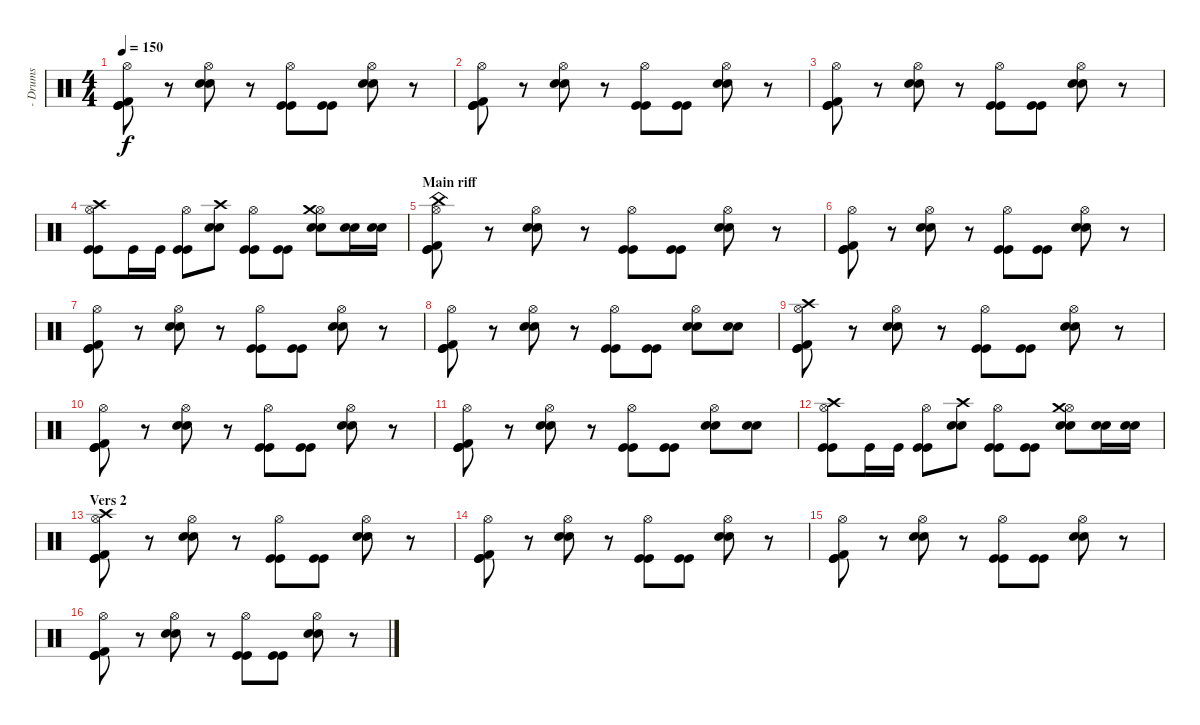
\track (" - Drums" " - Drums") {instrument percussion}
\staff {score}
\articulation defaults
\ts (4 4)
\tempo 150
\clef neutral
\ks c
("Hi-Hat (open)" "Kick (hit) 2" "Kick (hit)" "Kick (hit)").8{dy f} r.8 ("Hi-Hat (open)" "Snare (hit) 2" "Snare (hit) 2").8 r.8 ("Hi-Hat (open)" "Kick (hit)" "Kick (hit)").8 ("Kick (hit)" "Kick (hit)").8 ("Hi-Hat (open)" "Snare (hit) 2" "Snare (hit) 2").8 r.8 |
("Hi-Hat (open)" "Kick (hit) 2" "Kick (hit)" "Kick (hit)").8 r.8 ("Hi-Hat (open)" "Snare (hit) 2" "Snare (hit) 2").8 r.8 ("Hi-Hat (open)" "Kick (hit)" "Kick (hit)").8 ("Kick (hit)" "Kick (hit)").8 ("Hi-Hat (open)" "Snare (hit) 2" "Snare (hit) 2").8 r.8 |
("Hi-Hat (open)" "Kick (hit) 2" "Kick (hit)" "Kick (hit)").8 r.8 ("Hi-Hat (open)" "Snare (hit) 2" "Snare (hit) 2").8 r.8 ("Hi-Hat (open)" "Kick (hit)" "Kick (hit)").8 ("Kick (hit)" "Kick (hit)").8 ("Hi-Hat (open)" "Snare (hit) 2" "Snare (hit) 2").8 r.8 |
("Hi-Hat (open)" "Crash high (hit)" "Kick (hit)" "Kick (hit)").8 "Kick (hit)".16 "Kick (hit)".16 ("Hi-Hat (open)" "Kick (hit)" "Kick (hit)").8 ("Crash high (hit)" "Snare (hit) 2" "Snare (hit) 2").8 ("Hi-Hat (open)" "Kick (hit)" "Kick (hit)").8 ("Kick (hit)" "Kick (hit)").8 ("Hi-Hat (open)" "Crash medium (hit)" "Snare (hit) 2" "Snare (hit) 2").8 ("Snare (hit) 2" "Snare (hit) 2").16 ("Snare (hit) 2" "Snare (hit) 2").16 |
\section ("" "Main riff")
("Hi-Hat (open)" "China (hit)" "Kick (hit) 2" "Kick (hit)" "Kick (hit)").8 r.8 ("Hi-Hat (open)" "Snare (hit) 2" "Snare (hit) 2").8 r.8 ("Hi-Hat (open)" "Kick (hit)" "Kick (hit)").8 ("Kick (hit)" "Kick (hit)").8 ("Hi-Hat (open)" "Snare (hit) 2" "Snare (hit) 2").8 r.8 |
("Hi-Hat (open)" "Kick (hit) 2" "Kick (hit)" "Kick (hit)").8 r.8 ("Hi-Hat (open)" "Snare (hit) 2" "Snare (hit) 2").8 r.8 ("Hi-Hat (open)" "Kick (hit)" "Kick (hit)").8 ("Kick (hit)" "Kick (hit)").8 ("Hi-Hat (open)" "Snare (hit) 2" "Snare (hit) 2").8 r.8 |
("Hi-Hat (open)" "Kick (hit) 2" "Kick (hit)" "Kick (hit)").8 r.8 ("Hi-Hat (open)" "Snare (hit) 2" "Snare (hit) 2").8 r.8 ("Hi-Hat (open)" "Kick (hit)" "Kick (hit)").8 ("Kick (hit)" "Kick (hit)").8 ("Hi-Hat (open)" "Snare (hit) 2" "Snare (hit) 2").8 r.8 |
("Hi-Hat (open)" "Kick (hit) 2" "Kick (hit)" "Kick (hit)").8 r.8 ("Hi-Hat (open)" "Snare (hit) 2" "Snare (hit) 2").8 r.8 ("Hi-Hat (open)" "Kick (hit)" "Kick (hit)").8 ("Kick (hit)" "Kick (hit)").8 ("Hi-Hat (open)" "Snare (hit) 2" "Snare (hit) 2").8 ("Snare (hit) 2" "Snare (hit) 2").8 |
("Hi-Hat (open)" "Crash high (hit)" "Kick (hit) 2" "Kick (hit)" "Kick (hit)").8 r.8 ("Hi-Hat (open)" "Snare (hit) 2" "Snare (hit) 2").8 r.8 ("Hi-Hat (open)" "Kick (hit)" "Kick (hit)").8 ("Kick (hit)" "Kick (hit)").8 ("Hi-Hat (open)" "Snare (hit) 2" "Snare (hit) 2").8 r.8 |
("Hi-Hat (open)" "Kick (hit) 2" "Kick (hit)" "Kick (hit)").8 r.8 ("Hi-Hat (open)" "Snare (hit) 2" "Snare (hit) 2").8 r.8 ("Hi-Hat (open)" "Kick (hit)" "Kick (hit)").8 ("Kick (hit)" "Kick (hit)").8 ("Hi-Hat (open)" "Snare (hit) 2" "Snare (hit) 2").8 r.8 |
("Hi-Hat (open)" "Kick (hit) 2" "Kick (hit)" "Kick (hit)").8 r.8 ("Hi-Hat (open)" "Snare (hit) 2" "Snare (hit) 2").8 r.8 ("Hi-Hat (open)" "Kick (hit)" "Kick (hit)").8 ("Kick (hit)" "Kick (hit)").8 ("Hi-Hat (open)" "Snare (hit) 2" "Snare (hit) 2").8 ("Snare (hit) 2" "Snare (hit) 2").8 |
("Hi-Hat (open)" "Crash high (hit)" "Kick (hit)" "Kick (hit)").8 "Kick (hit)".16 "Kick (hit)".16 ("Hi-Hat (open)" "Kick (hit)" "Kick (hit)").8 ("Crash high (hit)" "Snare (hit) 2" "Snare (hit) 2").8 ("Hi-Hat (open)" "Kick (hit)" "Kick (hit)").8 ("Kick (hit)" "Kick (hit)").8 ("Hi-Hat (open)" "Crash medium (hit)" "Snare (hit) 2" "Snare (hit) 2").8 ("Snare (hit) 2" "Snare (hit) 2").16 ("Snare (hit) 2" "Snare (hit) 2").16 |
\section ("" "Vers 2")
("Hi-Hat (open)" "Crash high (hit)" "Kick (hit) 2" "Kick (hit)" "Kick (hit)").8 r.8 ("Hi-Hat (open)" "Snare (hit) 2" "Snare (hit) 2").8 r.8 ("Hi-Hat (open)" "Kick (hit)" "Kick (hit)").8 ("Kick (hit)" "Kick (hit)").8 ("Hi-Hat (open)" "Snare (hit) 2" "Snare (hit) 2").8 r.8 |
("Hi-Hat (open)" "Kick (hit) 2" "Kick (hit)" "Kick (hit)").8 r.8 ("Hi-Hat (open)" "Snare (hit) 2" "Snare (hit) 2").8 r.8 ("Hi-Hat (open)" "Kick (hit)" "Kick (hit)").8 ("Kick (hit)" "Kick (hit)").8 ("Hi-Hat (open)" "Snare (hit) 2" "Snare (hit) 2").8 r.8 |
("Hi-Hat (open)" "Kick (hit) 2" "Kick (hit)" "Kick (hit)").8 r.8 ("Hi-Hat (open)" "Snare (hit) 2" "Snare (hit) 2").8 r.8 ("Hi-Hat (open)" "Kick (hit)" "Kick (hit)").8 ("Kick (hit)" "Kick (hit)").8 ("Hi-Hat (open)" "Snare (hit) 2" "Snare (hit) 2").8 r.8 |
("Hi-Hat (open)" "Kick (hit) 2" "Kick (hit)" "Kick (hit)").8 r.8 ("Hi-Hat (open)" "Snare (hit) 2" "Snare (hit) 2").8 r.8 ("Hi-Hat (open)" "Kick (hit)" "Kick (hit)").8 ("Kick (hit)" "Kick (hit)").8 ("Hi-Hat (open)" "Snare (hit) 2" "Snare (hit) 2").8 r.8
